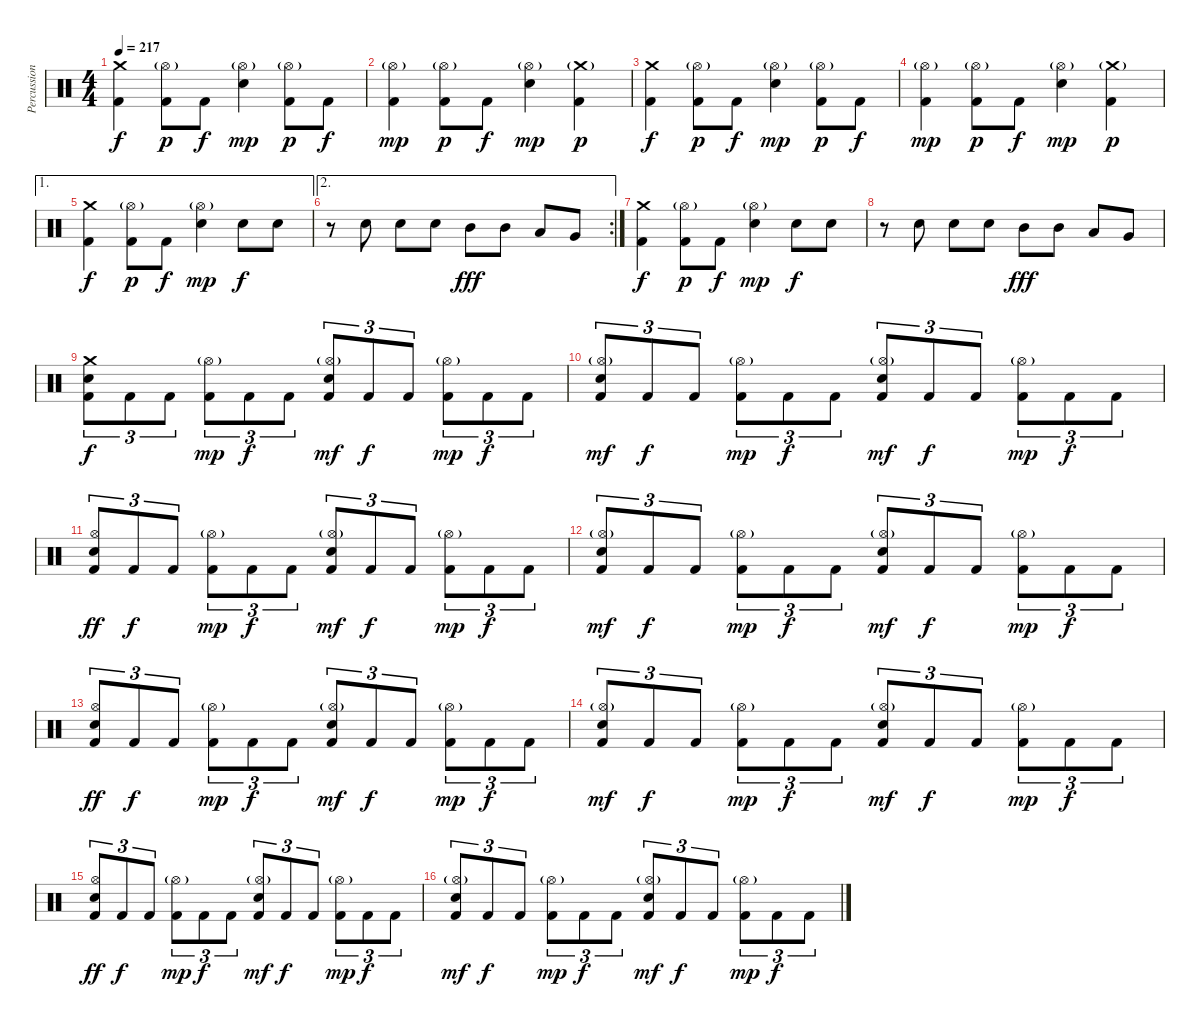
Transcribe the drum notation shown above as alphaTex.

\track ("Percussion" "Percussion") {instrument percussion}
\staff {score}
\articulation defaults
\ts (4 4)
\tempo 217
\clef neutral
\ks c
("Crash medium (hit)" "Kick (hit) 2").4{dy f} ("Hi-Hat (open)"{g} "Kick (hit) 2").8{dy p} "Kick (hit) 2".8{dy f} ("Hi-Hat (open)"{g} "Electric Snare (hit)").4{dy mp} ("Hi-Hat (open)"{g} "Kick (hit) 2").8{dy p} "Kick (hit) 2".8{dy f} |
("Hi-Hat (open)"{g} "Kick (hit) 2").4{dy mp} ("Hi-Hat (open)"{g} "Kick (hit) 2").8{dy p} "Kick (hit) 2".8{dy f} ("Hi-Hat (open)"{g} "Electric Snare (hit)").4{dy mp} ("Crash medium (hit)"{g} "Kick (hit) 2").4{dy p} |
("Crash medium (hit)" "Kick (hit) 2").4{dy f} ("Hi-Hat (open)"{g} "Kick (hit) 2").8{dy p} "Kick (hit) 2".8{dy f} ("Hi-Hat (open)"{g} "Electric Snare (hit)").4{dy mp} ("Hi-Hat (open)"{g} "Kick (hit) 2").8{dy p} "Kick (hit) 2".8{dy f} |
("Hi-Hat (open)"{g} "Kick (hit) 2").4{dy mp} ("Hi-Hat (open)"{g} "Kick (hit) 2").8{dy p} "Kick (hit) 2".8{dy f} ("Hi-Hat (open)"{g} "Electric Snare (hit)").4{dy mp} ("Crash medium (hit)"{g} "Kick (hit) 2").4{dy p} |
\ae 1
("Crash medium (hit)" "Kick (hit) 2").4{dy f} ("Hi-Hat (open)"{g} "Kick (hit) 2").8{dy p} "Kick (hit) 2".8{dy f} ("Hi-Hat (open)"{g} "Electric Snare (hit)").4{dy mp} "Electric Snare (hit)".8{dy f} "Electric Snare (hit)".8 |
\ae 2
\rc 2
r.8 "Electric Snare (hit)".8 "Electric Snare (hit)".8 "Electric Snare (hit)".8 "Mid Tom (hit)".8{dy fff} "Mid Tom (hit)".8 "Low Tom (hit)".8 "Very Low Tom (hit)".8 |
("Crash medium (hit)" "Kick (hit) 2").4{dy f} ("Hi-Hat (open)"{g} "Kick (hit) 2").8{dy p} "Kick (hit) 2".8{dy f} ("Hi-Hat (open)"{g} "Electric Snare (hit)").4{dy mp} "Electric Snare (hit)".8{dy f} "Electric Snare (hit)".8 |
r.8 "Electric Snare (hit)".8 "Electric Snare (hit)".8 "Electric Snare (hit)".8 "Mid Tom (hit)".8{dy fff} "Mid Tom (hit)".8 "Low Tom (hit)".8 "Very Low Tom (hit)".8 |
("Crash medium (hit)" "Electric Snare (hit)" "Kick (hit) 2").8{tu (3 2) dy f} "Kick (hit) 2".8{tu (3 2)} "Kick (hit) 2".8{tu (3 2)} ("Hi-Hat (open)"{g} "Kick (hit) 2").8{tu (3 2) dy mp} "Kick (hit) 2".8{tu (3 2) dy f} "Kick (hit) 2".8{tu (3 2)} ("Hi-Hat (open)"{g} "Electric Snare (hit)" "Kick (hit) 2").8{tu (3 2) dy mf} "Kick (hit) 2".8{tu (3 2) dy f} "Kick (hit) 2".8{tu (3 2)} ("Hi-Hat (open)"{g} "Kick (hit) 2").8{tu (3 2) dy mp} "Kick (hit) 2".8{tu (3 2) dy f} "Kick (hit) 2".8{tu (3 2)} |
("Hi-Hat (open)"{g} "Electric Snare (hit)" "Kick (hit) 2").8{tu (3 2) dy mf} "Kick (hit) 2".8{tu (3 2) dy f} "Kick (hit) 2".8{tu (3 2)} ("Hi-Hat (open)"{g} "Kick (hit) 2").8{tu (3 2) dy mp} "Kick (hit) 2".8{tu (3 2) dy f} "Kick (hit) 2".8{tu (3 2)} ("Hi-Hat (open)"{g} "Electric Snare (hit)" "Kick (hit) 2").8{tu (3 2) dy mf} "Kick (hit) 2".8{tu (3 2) dy f} "Kick (hit) 2".8{tu (3 2)} ("Hi-Hat (open)"{g} "Kick (hit) 2").8{tu (3 2) dy mp} "Kick (hit) 2".8{tu (3 2) dy f} "Kick (hit) 2".8{tu (3 2)} |
("Hi-Hat (open)" "Electric Snare (hit)" "Kick (hit) 2").8{tu (3 2) dy ff} "Kick (hit) 2".8{tu (3 2) dy f} "Kick (hit) 2".8{tu (3 2)} ("Hi-Hat (open)"{g} "Kick (hit) 2").8{tu (3 2) dy mp} "Kick (hit) 2".8{tu (3 2) dy f} "Kick (hit) 2".8{tu (3 2)} ("Hi-Hat (open)"{g} "Electric Snare (hit)" "Kick (hit) 2").8{tu (3 2) dy mf} "Kick (hit) 2".8{tu (3 2) dy f} "Kick (hit) 2".8{tu (3 2)} ("Hi-Hat (open)"{g} "Kick (hit) 2").8{tu (3 2) dy mp} "Kick (hit) 2".8{tu (3 2) dy f} "Kick (hit) 2".8{tu (3 2)} |
("Hi-Hat (open)"{g} "Electric Snare (hit)" "Kick (hit) 2").8{tu (3 2) dy mf} "Kick (hit) 2".8{tu (3 2) dy f} "Kick (hit) 2".8{tu (3 2)} ("Hi-Hat (open)"{g} "Kick (hit) 2").8{tu (3 2) dy mp} "Kick (hit) 2".8{tu (3 2) dy f} "Kick (hit) 2".8{tu (3 2)} ("Hi-Hat (open)"{g} "Electric Snare (hit)" "Kick (hit) 2").8{tu (3 2) dy mf} "Kick (hit) 2".8{tu (3 2) dy f} "Kick (hit) 2".8{tu (3 2)} ("Hi-Hat (open)"{g} "Kick (hit) 2").8{tu (3 2) dy mp} "Kick (hit) 2".8{tu (3 2) dy f} "Kick (hit) 2".8{tu (3 2)} |
("Hi-Hat (open)" "Electric Snare (hit)" "Kick (hit) 2").8{tu (3 2) dy ff} "Kick (hit) 2".8{tu (3 2) dy f} "Kick (hit) 2".8{tu (3 2)} ("Hi-Hat (open)"{g} "Kick (hit) 2").8{tu (3 2) dy mp} "Kick (hit) 2".8{tu (3 2) dy f} "Kick (hit) 2".8{tu (3 2)} ("Hi-Hat (open)"{g} "Electric Snare (hit)" "Kick (hit) 2").8{tu (3 2) dy mf} "Kick (hit) 2".8{tu (3 2) dy f} "Kick (hit) 2".8{tu (3 2)} ("Hi-Hat (open)"{g} "Kick (hit) 2").8{tu (3 2) dy mp} "Kick (hit) 2".8{tu (3 2) dy f} "Kick (hit) 2".8{tu (3 2)} |
("Hi-Hat (open)"{g} "Electric Snare (hit)" "Kick (hit) 2").8{tu (3 2) dy mf} "Kick (hit) 2".8{tu (3 2) dy f} "Kick (hit) 2".8{tu (3 2)} ("Hi-Hat (open)"{g} "Kick (hit) 2").8{tu (3 2) dy mp} "Kick (hit) 2".8{tu (3 2) dy f} "Kick (hit) 2".8{tu (3 2)} ("Hi-Hat (open)"{g} "Electric Snare (hit)" "Kick (hit) 2").8{tu (3 2) dy mf} "Kick (hit) 2".8{tu (3 2) dy f} "Kick (hit) 2".8{tu (3 2)} ("Hi-Hat (open)"{g} "Kick (hit) 2").8{tu (3 2) dy mp} "Kick (hit) 2".8{tu (3 2) dy f} "Kick (hit) 2".8{tu (3 2)} |
("Hi-Hat (open)" "Electric Snare (hit)" "Kick (hit) 2").8{tu (3 2) dy ff} "Kick (hit) 2".8{tu (3 2) dy f} "Kick (hit) 2".8{tu (3 2)} ("Hi-Hat (open)"{g} "Kick (hit) 2").8{tu (3 2) dy mp} "Kick (hit) 2".8{tu (3 2) dy f} "Kick (hit) 2".8{tu (3 2)} ("Hi-Hat (open)"{g} "Electric Snare (hit)" "Kick (hit) 2").8{tu (3 2) dy mf} "Kick (hit) 2".8{tu (3 2) dy f} "Kick (hit) 2".8{tu (3 2)} ("Hi-Hat (open)"{g} "Kick (hit) 2").8{tu (3 2) dy mp} "Kick (hit) 2".8{tu (3 2) dy f} "Kick (hit) 2".8{tu (3 2)} |
("Hi-Hat (open)"{g} "Electric Snare (hit)" "Kick (hit) 2").8{tu (3 2) dy mf} "Kick (hit) 2".8{tu (3 2) dy f} "Kick (hit) 2".8{tu (3 2)} ("Hi-Hat (open)"{g} "Kick (hit) 2").8{tu (3 2) dy mp} "Kick (hit) 2".8{tu (3 2) dy f} "Kick (hit) 2".8{tu (3 2)} ("Hi-Hat (open)"{g} "Electric Snare (hit)" "Kick (hit) 2").8{tu (3 2) dy mf} "Kick (hit) 2".8{tu (3 2) dy f} "Kick (hit) 2".8{tu (3 2)} ("Hi-Hat (open)"{g} "Kick (hit) 2").8{tu (3 2) dy mp} "Kick (hit) 2".8{tu (3 2) dy f} "Kick (hit) 2".8{tu (3 2)}
